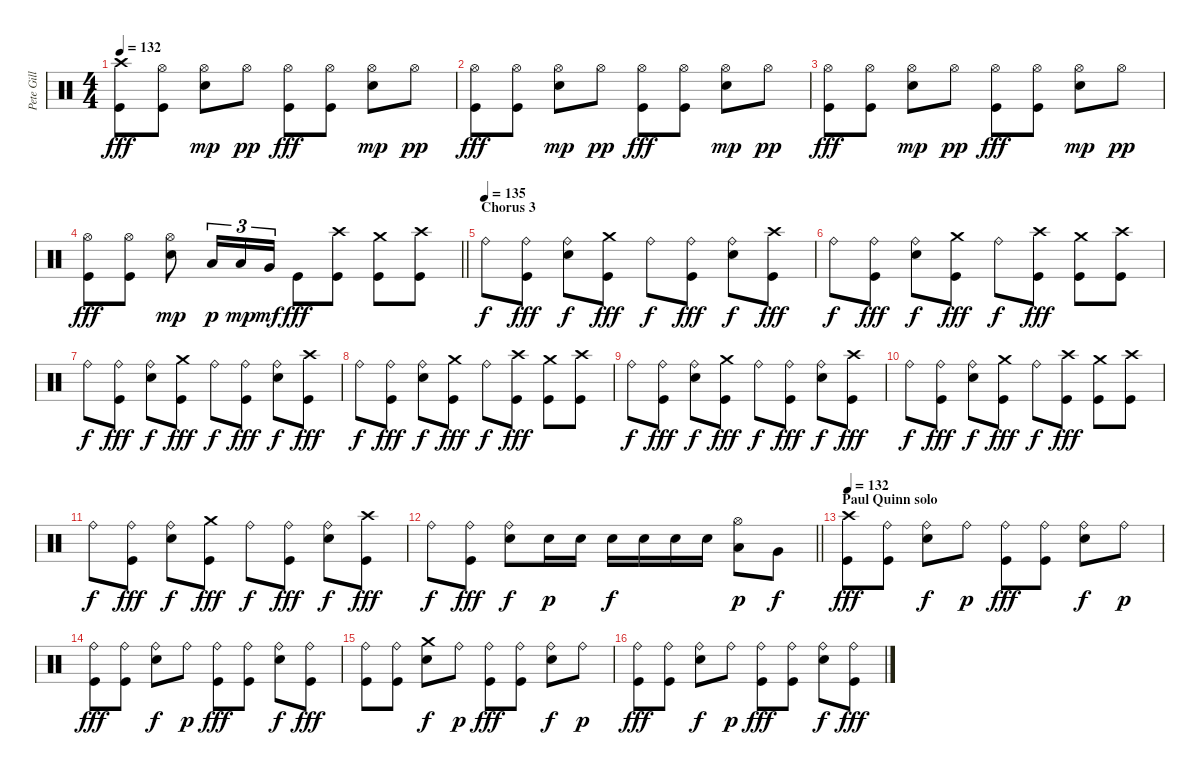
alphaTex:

\track ("Pete Gill" "Pete Gill") {instrument percussion}
\staff {score}
\articulation defaults
\ts (4 4)
\tempo 132
\clef neutral
\ks c
("Crash high (hit)" "Kick (hit)").8{dy fff} ("Hi-Hat (open)" "Kick (hit)").8 ("Hi-Hat (open)" "Electric Snare (hit)").8{dy mp} "Hi-Hat (open)".8{dy pp} ("Hi-Hat (open)" "Kick (hit)").8{dy fff} ("Hi-Hat (open)" "Kick (hit)").8 ("Hi-Hat (open)" "Electric Snare (hit)").8{dy mp} "Hi-Hat (open)".8{dy pp} |
("Hi-Hat (open)" "Kick (hit)").8{dy fff} ("Hi-Hat (open)" "Kick (hit)").8 ("Hi-Hat (open)" "Electric Snare (hit)").8{dy mp} "Hi-Hat (open)".8{dy pp} ("Hi-Hat (open)" "Kick (hit)").8{dy fff} ("Hi-Hat (open)" "Kick (hit)").8 ("Hi-Hat (open)" "Electric Snare (hit)").8{dy mp} "Hi-Hat (open)".8{dy pp} |
("Hi-Hat (open)" "Kick (hit)").8{dy fff} ("Hi-Hat (open)" "Kick (hit)").8 ("Hi-Hat (open)" "Electric Snare (hit)").8{dy mp} "Hi-Hat (open)".8{dy pp} ("Hi-Hat (open)" "Kick (hit)").8{dy fff} ("Hi-Hat (open)" "Kick (hit)").8 ("Hi-Hat (open)" "Electric Snare (hit)").8{dy mp} "Hi-Hat (open)".8{dy pp} |
\barLineRight lightlight
("Hi-Hat (open)" "Kick (hit)").8{dy fff} ("Hi-Hat (open)" "Kick (hit)").8 ("Hi-Hat (open)" "Electric Snare (hit)").8{dy mp} "Low Tom (hit)".16{tu (3 2) dy p} "Low Tom (hit)".16{tu (3 2) dy mp} "Very Low Tom (hit)".16{tu (3 2) dy mf} "Kick (hit)".8{dy fff} ("Crash high (hit)" "Kick (hit)").8 ("Crash medium (hit)" "Kick (hit)").8 ("Crash high (hit)" "Kick (hit)").8 |
\section ("" "Chorus 3")
\tempo (135)
"Ride (bell)".8{dy f} ("Ride (bell)" "Kick (hit)").8{dy fff} ("Ride (bell)" "Electric Snare (hit)").8{dy f} ("Crash medium (hit)" "Kick (hit)").8{dy fff} "Ride (bell)".8{dy f} ("Ride (bell)" "Kick (hit)").8{dy fff} ("Ride (bell)" "Electric Snare (hit)").8{dy f} ("Crash high (hit)" "Kick (hit)").8{dy fff} |
"Ride (bell)".8{dy f} ("Ride (bell)" "Kick (hit)").8{dy fff} ("Ride (bell)" "Electric Snare (hit)").8{dy f} ("Crash medium (hit)" "Kick (hit)").8{dy fff} "Ride (bell)".8{dy f} ("Crash high (hit)" "Kick (hit)").8{dy fff} ("Crash medium (hit)" "Kick (hit)").8 ("Crash high (hit)" "Kick (hit)").8 |
"Ride (bell)".8{dy f} ("Ride (bell)" "Kick (hit)").8{dy fff} ("Ride (bell)" "Electric Snare (hit)").8{dy f} ("Crash medium (hit)" "Kick (hit)").8{dy fff} "Ride (bell)".8{dy f} ("Ride (bell)" "Kick (hit)").8{dy fff} ("Ride (bell)" "Electric Snare (hit)").8{dy f} ("Crash high (hit)" "Kick (hit)").8{dy fff} |
"Ride (bell)".8{dy f} ("Ride (bell)" "Kick (hit)").8{dy fff} ("Ride (bell)" "Electric Snare (hit)").8{dy f} ("Crash medium (hit)" "Kick (hit)").8{dy fff} "Ride (bell)".8{dy f} ("Crash high (hit)" "Kick (hit)").8{dy fff} ("Crash medium (hit)" "Kick (hit)").8 ("Crash high (hit)" "Kick (hit)").8 |
"Ride (bell)".8{dy f} ("Ride (bell)" "Kick (hit)").8{dy fff} ("Ride (bell)" "Electric Snare (hit)").8{dy f} ("Crash medium (hit)" "Kick (hit)").8{dy fff} "Ride (bell)".8{dy f} ("Ride (bell)" "Kick (hit)").8{dy fff} ("Ride (bell)" "Electric Snare (hit)").8{dy f} ("Crash high (hit)" "Kick (hit)").8{dy fff} |
"Ride (bell)".8{dy f} ("Ride (bell)" "Kick (hit)").8{dy fff} ("Ride (bell)" "Electric Snare (hit)").8{dy f} ("Crash medium (hit)" "Kick (hit)").8{dy fff} "Ride (bell)".8{dy f} ("Crash high (hit)" "Kick (hit)").8{dy fff} ("Crash medium (hit)" "Kick (hit)").8 ("Crash high (hit)" "Kick (hit)").8 |
"Ride (bell)".8{dy f} ("Ride (bell)" "Kick (hit)").8{dy fff} ("Ride (bell)" "Electric Snare (hit)").8{dy f} ("Crash medium (hit)" "Kick (hit)").8{dy fff} "Ride (bell)".8{dy f} ("Ride (bell)" "Kick (hit)").8{dy fff} ("Ride (bell)" "Electric Snare (hit)").8{dy f} ("Crash high (hit)" "Kick (hit)").8{dy fff} |
\barLineRight lightlight "Ride (bell)".8{dy f}
("Ride (bell)" "Kick (hit)").8{dy fff} ("Ride (bell)" "Electric Snare (hit)").8{dy f} "Electric Snare (hit)".16{dy p} "Electric Snare (hit)".16 "Electric Snare (hit)".16{dy f} "Electric Snare (hit)".16 "Electric Snare (hit)".16 "Electric Snare (hit)".16 ("Hi-Hat (open)" "Low Tom (hit)").8{dy p} "Very Low Tom (hit)".8{dy f} |
\section ("" "Paul Quinn solo")
\tempo 132
("Crash high (hit)" "Kick (hit)").8{dy fff} ("Ride (bell)" "Kick (hit)").8 ("Ride (bell)" "Electric Snare (hit)").8{dy f} "Ride (bell)".8{dy p} ("Ride (bell)" "Kick (hit)").8{dy fff} ("Ride (bell)" "Kick (hit)").8 ("Ride (bell)" "Electric Snare (hit)").8{dy f} "Ride (bell)".8{dy p} |
("Ride (bell)" "Kick (hit)").8{dy fff} ("Ride (bell)" "Kick (hit)").8 ("Ride (bell)" "Electric Snare (hit)").8{dy f} "Ride (bell)".8{dy p} ("Ride (bell)" "Kick (hit)").8{dy fff} ("Ride (bell)" "Kick (hit)").8 ("Ride (bell)" "Electric Snare (hit)").8{dy f} ("Ride (bell)" "Kick (hit)").8{dy fff} |
("Ride (bell)" "Kick (hit)").8 ("Ride (bell)" "Kick (hit)").8 ("Crash medium (hit)" "Electric Snare (hit)").8{dy f} "Ride (bell)".8{dy p} ("Ride (bell)" "Kick (hit)").8{dy fff} ("Ride (bell)" "Kick (hit)").8 ("Ride (bell)" "Electric Snare (hit)").8{dy f} "Ride (bell)".8{dy p} |
("Ride (bell)" "Kick (hit)").8{dy fff} ("Ride (bell)" "Kick (hit)").8 ("Ride (bell)" "Electric Snare (hit)").8{dy f} "Ride (bell)".8{dy p} ("Ride (bell)" "Kick (hit)").8{dy fff} ("Ride (bell)" "Kick (hit)").8 ("Ride (bell)" "Electric Snare (hit)").8{dy f} ("Ride (bell)" "Kick (hit)").8{dy fff}
